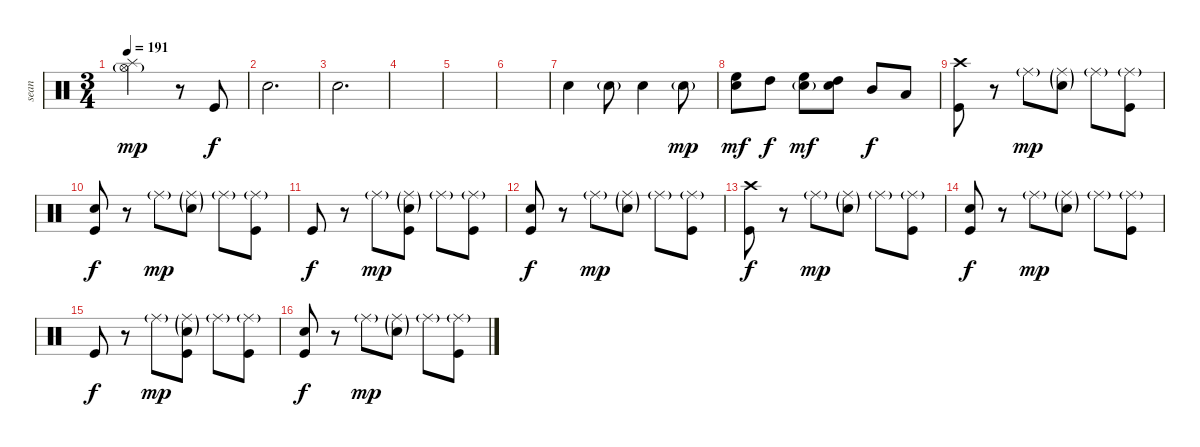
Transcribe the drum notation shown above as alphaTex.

\track ("sean" "sean") {instrument percussion}
\staff {score}
\articulation defaults
\ts (3 4)
\tempo 191
\clef neutral
\ks c
("Splash (hit)" "Hi-Hat (open)"{g}).2{dy mp} r.8 "Kick (hit)".8{dy f} |
"Electric Snare (hit)".2{d} |
"Electric Snare (hit)".2{d} |
|
|
|
"Electric Snare (hit)".4 "Electric Snare (hit)"{g}.8 "Electric Snare (hit)".4 "Electric Snare (hit)"{g}.8{dy mp} |
("High Floor Tom (hit)" "Electric Snare (hit)").8{dy mf} "High Tom (hit)".8{dy f} ("High Floor Tom (hit)" "Electric Snare (hit)"{g}).8{dy mf} ("High Tom (hit)" "Electric Snare (hit)").8 "Mid Tom (hit)".8{dy f} "Low Tom (hit)".8 |
("Crash high (hit)" "Kick (hit)").8 r.8 "Ride (middle)"{g}.8{dy mp} ("Electric Snare (hit)"{g} "Ride (middle)"{g}).8 "Ride (middle)"{g}.8 ("Kick (hit)" "Ride (middle)"{g}).8 |
("Electric Snare (hit)" "Kick (hit)").8{dy f} r.8 "Ride (middle)"{g}.8{dy mp} ("Electric Snare (hit)"{g} "Ride (middle)"{g}).8 "Ride (middle)"{g}.8 ("Kick (hit)" "Ride (middle)"{g}).8 |
"Kick (hit)".8{dy f} r.8 "Ride (middle)"{g}.8{dy mp} ("Electric Snare (hit)"{g} "Ride (middle)"{g} "Kick (hit)").8 "Ride (middle)"{g}.8 ("Kick (hit)" "Ride (middle)"{g}).8 |
("Electric Snare (hit)" "Kick (hit)").8{dy f} r.8 "Ride (middle)"{g}.8{dy mp} ("Electric Snare (hit)"{g} "Ride (middle)"{g}).8 "Ride (middle)"{g}.8 ("Kick (hit)" "Ride (middle)"{g}).8 |
("Crash high (hit)" "Kick (hit)").8{dy f} r.8 "Ride (middle)"{g}.8{dy mp} ("Electric Snare (hit)"{g} "Ride (middle)"{g}).8 "Ride (middle)"{g}.8 ("Kick (hit)" "Ride (middle)"{g}).8 |
("Electric Snare (hit)" "Kick (hit)").8{dy f} r.8 "Ride (middle)"{g}.8{dy mp} ("Electric Snare (hit)"{g} "Ride (middle)"{g}).8 "Ride (middle)"{g}.8 ("Kick (hit)" "Ride (middle)"{g}).8 |
"Kick (hit)".8{dy f} r.8 "Ride (middle)"{g}.8{dy mp} ("Electric Snare (hit)"{g} "Ride (middle)"{g} "Kick (hit)").8 "Ride (middle)"{g}.8 ("Kick (hit)" "Ride (middle)"{g}).8 |
("Electric Snare (hit)" "Kick (hit)").8{dy f} r.8 "Ride (middle)"{g}.8{dy mp} ("Electric Snare (hit)"{g} "Ride (middle)"{g}).8 "Ride (middle)"{g}.8 ("Kick (hit)" "Ride (middle)"{g}).8
